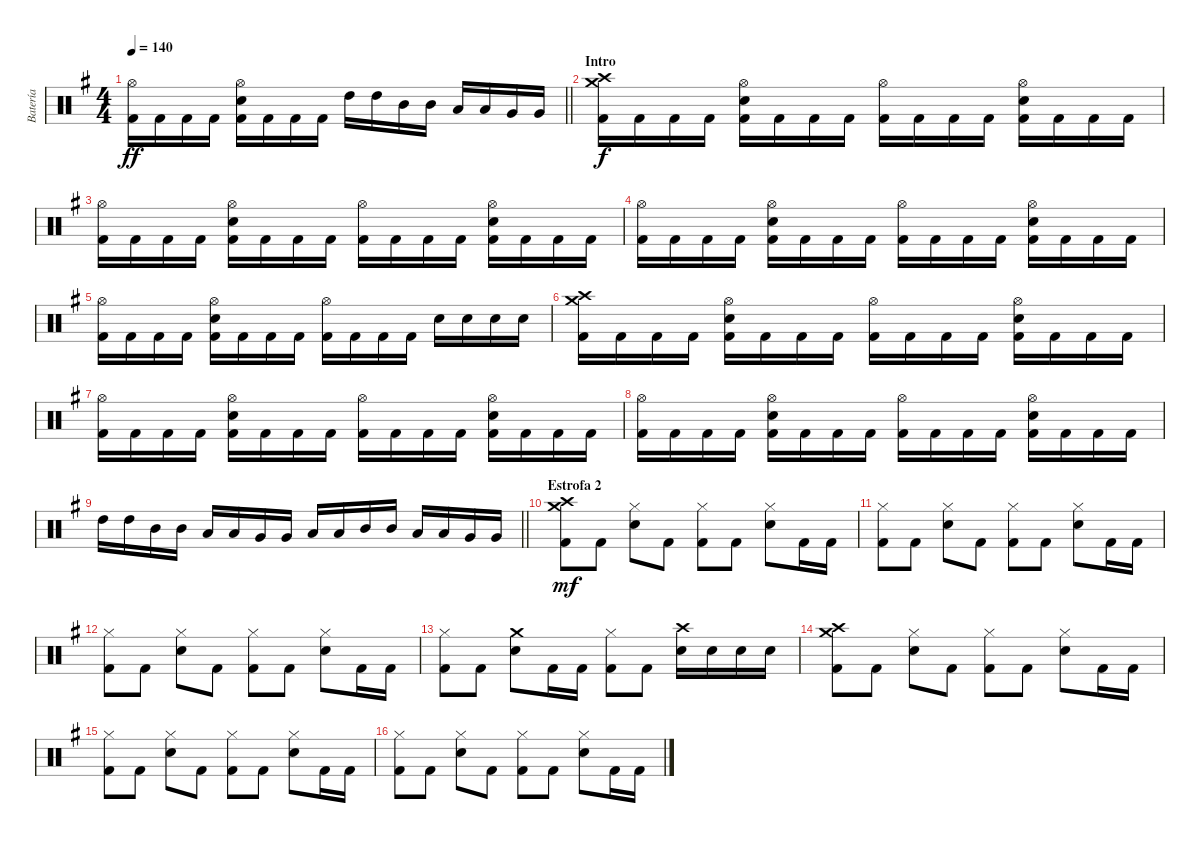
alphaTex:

\track ("Batería" "Batería") {instrument percussion}
\staff {score}
\articulation defaults
\ts (4 4)
\tempo 140
\clef neutral
\barLineRight lightlight
\ks g
("Hi-Hat (open)" "Kick (hit) 2").16{dy ff} "Kick (hit) 2".16 "Kick (hit) 2".16 "Kick (hit) 2".16 ("Hi-Hat (open)" "Snare (hit) 2" "Kick (hit) 2").16 "Kick (hit) 2".16 "Kick (hit) 2".16 "Kick (hit) 2".16 "High Tom (hit)".16 "High Tom (hit)".16 "Mid Tom (hit)".16 "Mid Tom (hit)".16 "Low Tom (hit)".16 "Low Tom (hit)".16 "Very Low Tom (hit)".16 "Very Low Tom (hit)".16 |
\section ("" "Intro")
("Crash medium (hit)" "Crash high (hit)" "Kick (hit) 2").16{dy f} "Kick (hit) 2".16 "Kick (hit) 2".16 "Kick (hit) 2".16 ("Hi-Hat (open)" "Snare (hit) 2" "Kick (hit) 2").16 "Kick (hit) 2".16 "Kick (hit) 2".16 "Kick (hit) 2".16 ("Hi-Hat (open)" "Kick (hit) 2").16 "Kick (hit) 2".16 "Kick (hit) 2".16 "Kick (hit) 2".16 ("Hi-Hat (open)" "Snare (hit) 2" "Kick (hit) 2").16 "Kick (hit) 2".16 "Kick (hit) 2".16 "Kick (hit) 2".16 |
("Hi-Hat (open)" "Kick (hit) 2").16 "Kick (hit) 2".16 "Kick (hit) 2".16 "Kick (hit) 2".16 ("Hi-Hat (open)" "Snare (hit) 2" "Kick (hit) 2").16 "Kick (hit) 2".16 "Kick (hit) 2".16 "Kick (hit) 2".16 ("Hi-Hat (open)" "Kick (hit) 2").16 "Kick (hit) 2".16 "Kick (hit) 2".16 "Kick (hit) 2".16 ("Hi-Hat (open)" "Snare (hit) 2" "Kick (hit) 2").16 "Kick (hit) 2".16 "Kick (hit) 2".16 "Kick (hit) 2".16 |
("Hi-Hat (open)" "Kick (hit) 2").16 "Kick (hit) 2".16 "Kick (hit) 2".16 "Kick (hit) 2".16 ("Hi-Hat (open)" "Snare (hit) 2" "Kick (hit) 2").16 "Kick (hit) 2".16 "Kick (hit) 2".16 "Kick (hit) 2".16 ("Hi-Hat (open)" "Kick (hit) 2").16 "Kick (hit) 2".16 "Kick (hit) 2".16 "Kick (hit) 2".16 ("Hi-Hat (open)" "Snare (hit) 2" "Kick (hit) 2").16 "Kick (hit) 2".16 "Kick (hit) 2".16 "Kick (hit) 2".16 |
("Hi-Hat (open)" "Kick (hit) 2").16 "Kick (hit) 2".16 "Kick (hit) 2".16 "Kick (hit) 2".16 ("Hi-Hat (open)" "Snare (hit) 2" "Kick (hit) 2").16 "Kick (hit) 2".16 "Kick (hit) 2".16 "Kick (hit) 2".16 ("Hi-Hat (open)" "Kick (hit) 2").16 "Kick (hit) 2".16 "Kick (hit) 2".16 "Kick (hit) 2".16 "Snare (hit) 2".16 "Snare (hit) 2".16 "Snare (hit) 2".16 "Snare (hit) 2".16 |
("Crash medium (hit)" "Crash high (hit)" "Kick (hit) 2").16 "Kick (hit) 2".16 "Kick (hit) 2".16 "Kick (hit) 2".16 ("Hi-Hat (open)" "Snare (hit) 2" "Kick (hit) 2").16 "Kick (hit) 2".16 "Kick (hit) 2".16 "Kick (hit) 2".16 ("Hi-Hat (open)" "Kick (hit) 2").16 "Kick (hit) 2".16 "Kick (hit) 2".16 "Kick (hit) 2".16 ("Hi-Hat (open)" "Snare (hit) 2" "Kick (hit) 2").16 "Kick (hit) 2".16 "Kick (hit) 2".16 "Kick (hit) 2".16 |
("Hi-Hat (open)" "Kick (hit) 2").16 "Kick (hit) 2".16 "Kick (hit) 2".16 "Kick (hit) 2".16 ("Hi-Hat (open)" "Snare (hit) 2" "Kick (hit) 2").16 "Kick (hit) 2".16 "Kick (hit) 2".16 "Kick (hit) 2".16 ("Hi-Hat (open)" "Kick (hit) 2").16 "Kick (hit) 2".16 "Kick (hit) 2".16 "Kick (hit) 2".16 ("Hi-Hat (open)" "Snare (hit) 2" "Kick (hit) 2").16 "Kick (hit) 2".16 "Kick (hit) 2".16 "Kick (hit) 2".16 |
("Hi-Hat (open)" "Kick (hit) 2").16 "Kick (hit) 2".16 "Kick (hit) 2".16 "Kick (hit) 2".16 ("Hi-Hat (open)" "Snare (hit) 2" "Kick (hit) 2").16 "Kick (hit) 2".16 "Kick (hit) 2".16 "Kick (hit) 2".16 ("Hi-Hat (open)" "Kick (hit) 2").16 "Kick (hit) 2".16 "Kick (hit) 2".16 "Kick (hit) 2".16 ("Hi-Hat (open)" "Snare (hit) 2" "Kick (hit) 2").16 "Kick (hit) 2".16 "Kick (hit) 2".16 "Kick (hit) 2".16 |
\barLineRight lightlight "High Tom (hit)".16 "High Tom (hit)".16 "Mid Tom (hit)".16 "Mid Tom (hit)".16 "Low Tom (hit)".16 "Low Tom (hit)".16 "Very Low Tom (hit)".16 "Very Low Tom (hit)".16 "Low Floor Tom (hit)".16 "Low Floor Tom (hit)".16 "Mid Tom (hit)".16 "Mid Tom (hit)".16 "Low Tom (hit)".16 "Low Tom (hit)".16 "Very Low Tom (hit)".16 "Very Low Tom (hit)".16
|
\section ("" "Estrofa 2")
("Crash medium (hit)" "Crash high (hit)" "Kick (hit) 2").8{dy mf} "Kick (hit) 2".8 ("Hi-Hat (closed)" "Snare (hit) 2").8 "Kick (hit) 2".8 ("Hi-Hat (closed)" "Kick (hit) 2").8 "Kick (hit) 2".8 ("Hi-Hat (closed)" "Snare (hit) 2").8 "Kick (hit) 2".16 "Kick (hit) 2".16 |
("Hi-Hat (closed)" "Kick (hit) 2").8 "Kick (hit) 2".8 ("Hi-Hat (closed)" "Snare (hit) 2").8 "Kick (hit) 2".8 ("Hi-Hat (closed)" "Kick (hit) 2").8 "Kick (hit) 2".8 ("Hi-Hat (closed)" "Snare (hit) 2").8 "Kick (hit) 2".16 "Kick (hit) 2".16 |
("Hi-Hat (closed)" "Kick (hit) 2").8 "Kick (hit) 2".8 ("Hi-Hat (closed)" "Snare (hit) 2").8 "Kick (hit) 2".8 ("Hi-Hat (closed)" "Kick (hit) 2").8 "Kick (hit) 2".8 ("Hi-Hat (closed)" "Snare (hit) 2").8 "Kick (hit) 2".16 "Kick (hit) 2".16 |
("Hi-Hat (closed)" "Kick (hit) 2").8 "Kick (hit) 2".8 ("Crash medium (hit)" "Snare (hit) 2").8 "Kick (hit) 2".16 "Kick (hit) 2".16 ("Hi-Hat (closed)" "Kick (hit) 2").8 "Kick (hit) 2".8 ("Crash high (hit)" "Snare (hit) 2").16 "Snare (hit) 2".16 "Snare (hit) 2".16 "Snare (hit) 2".16 |
("Crash medium (hit)" "Crash high (hit)" "Kick (hit) 2").8 "Kick (hit) 2".8 ("Hi-Hat (closed)" "Snare (hit) 2").8 "Kick (hit) 2".8 ("Hi-Hat (closed)" "Kick (hit) 2").8 "Kick (hit) 2".8 ("Hi-Hat (closed)" "Snare (hit) 2").8 "Kick (hit) 2".16 "Kick (hit) 2".16 |
("Hi-Hat (closed)" "Kick (hit) 2").8 "Kick (hit) 2".8 ("Hi-Hat (closed)" "Snare (hit) 2").8 "Kick (hit) 2".8 ("Hi-Hat (closed)" "Kick (hit) 2").8 "Kick (hit) 2".8 ("Hi-Hat (closed)" "Snare (hit) 2").8 "Kick (hit) 2".16 "Kick (hit) 2".16 |
("Hi-Hat (closed)" "Kick (hit) 2").8 "Kick (hit) 2".8 ("Hi-Hat (closed)" "Snare (hit) 2").8 "Kick (hit) 2".8 ("Hi-Hat (closed)" "Kick (hit) 2").8 "Kick (hit) 2".8 ("Hi-Hat (closed)" "Snare (hit) 2").8 "Kick (hit) 2".16 "Kick (hit) 2".16
